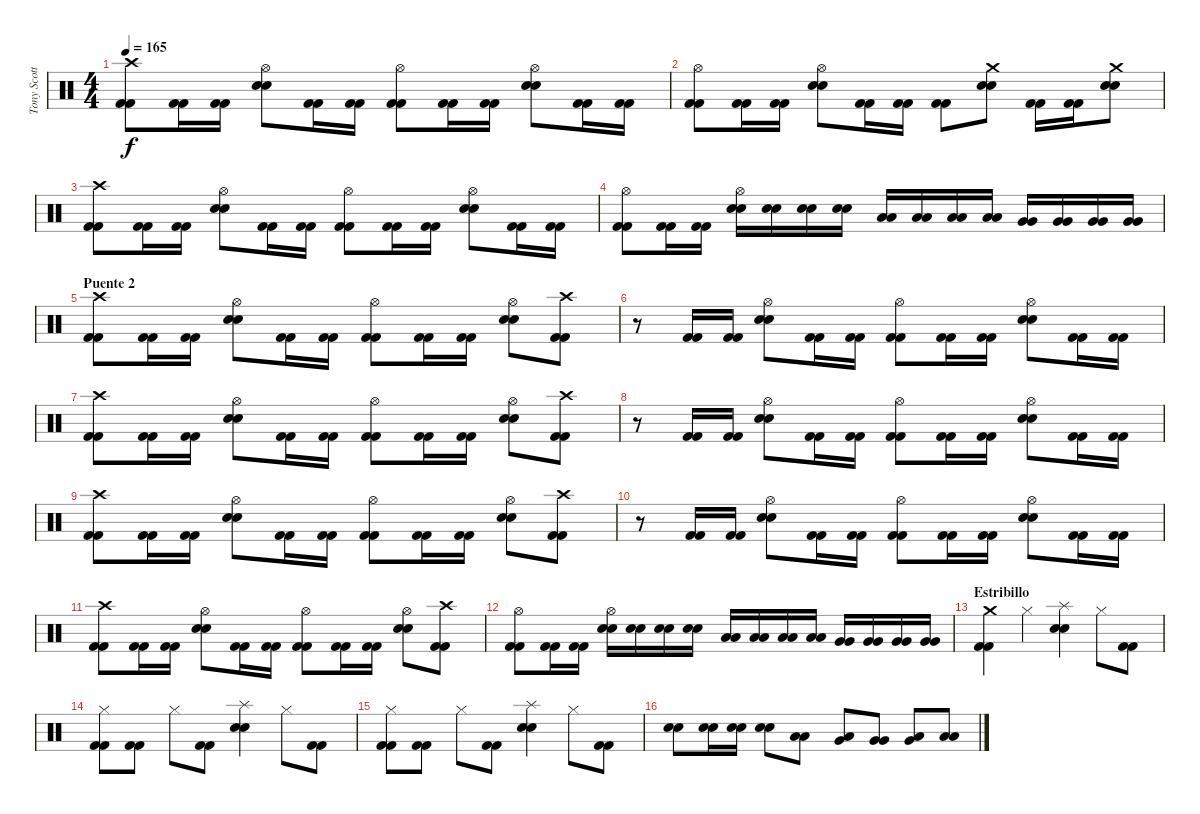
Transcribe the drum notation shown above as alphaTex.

\track ("Tony Scotto (bateria)" "Tony Scott") {instrument percussion}
\staff {score}
\articulation defaults
\ts (4 4)
\tempo 165
\clef neutral
\ks c
("Crash high (hit)" "Kick (hit) 2" "Kick (hit) 2").8{dy f} ("Kick (hit) 2" "Kick (hit) 2").16 ("Kick (hit) 2" "Kick (hit) 2").16 ("Hi-Hat (open)" "Snare (hit) 2" "Snare (hit) 2").8 ("Kick (hit) 2" "Kick (hit) 2").16 ("Kick (hit) 2" "Kick (hit) 2").16 ("Hi-Hat (open)" "Kick (hit) 2" "Kick (hit) 2").8 ("Kick (hit) 2" "Kick (hit) 2").16 ("Kick (hit) 2" "Kick (hit) 2").16 ("Hi-Hat (open)" "Snare (hit) 2" "Snare (hit) 2").8 ("Kick (hit) 2" "Kick (hit) 2").16 ("Kick (hit) 2" "Kick (hit) 2").16 |
("Hi-Hat (open)" "Kick (hit) 2" "Kick (hit) 2").8 ("Kick (hit) 2" "Kick (hit) 2").16 ("Kick (hit) 2" "Kick (hit) 2").16 ("Hi-Hat (open)" "Snare (hit) 2" "Snare (hit) 2").8 ("Kick (hit) 2" "Kick (hit) 2").16 ("Kick (hit) 2" "Kick (hit) 2").16 ("Kick (hit) 2" "Kick (hit) 2").8 ("Crash medium (hit)" "Snare (hit) 2" "Snare (hit) 2").8 ("Kick (hit) 2" "Kick (hit) 2").16 ("Kick (hit) 2" "Kick (hit) 2").16 ("Crash medium (hit)" "Snare (hit) 2" "Snare (hit) 2").8 |
("Crash high (hit)" "Kick (hit) 2" "Kick (hit) 2").8 ("Kick (hit) 2" "Kick (hit) 2").16 ("Kick (hit) 2" "Kick (hit) 2").16 ("Hi-Hat (open)" "Snare (hit) 2" "Snare (hit) 2").8 ("Kick (hit) 2" "Kick (hit) 2").16 ("Kick (hit) 2" "Kick (hit) 2").16 ("Hi-Hat (open)" "Kick (hit) 2" "Kick (hit) 2").8 ("Kick (hit) 2" "Kick (hit) 2").16 ("Kick (hit) 2" "Kick (hit) 2").16 ("Hi-Hat (open)" "Snare (hit) 2" "Snare (hit) 2").8 ("Kick (hit) 2" "Kick (hit) 2").16 ("Kick (hit) 2" "Kick (hit) 2").16 |
("Hi-Hat (open)" "Kick (hit) 2" "Kick (hit) 2").8 ("Kick (hit) 2" "Kick (hit) 2").16 ("Kick (hit) 2" "Kick (hit) 2").16 ("Hi-Hat (open)" "Snare (hit) 2" "Snare (hit) 2").16 ("Snare (hit) 2" "Snare (hit) 2").16 ("Snare (hit) 2" "Snare (hit) 2").16 ("Snare (hit) 2" "Snare (hit) 2").16 ("Low Tom (hit)" "Low Tom (hit)").16 ("Low Tom (hit)" "Low Tom (hit)").16 ("Low Tom (hit)" "Low Tom (hit)").16 ("Low Tom (hit)" "Low Tom (hit)").16 ("Very Low Tom (hit)" "Very Low Tom (hit)").16 ("Very Low Tom (hit)" "Very Low Tom (hit)").16 ("Very Low Tom (hit)" "Very Low Tom (hit)").16 ("Very Low Tom (hit)" "Very Low Tom (hit)").16 |
\section ("" "Puente 2")
("Crash high (hit)" "Kick (hit) 2" "Kick (hit) 2").8 ("Kick (hit) 2" "Kick (hit) 2").16 ("Kick (hit) 2" "Kick (hit) 2").16 ("Hi-Hat (open)" "Snare (hit) 2" "Snare (hit) 2").8 ("Kick (hit) 2" "Kick (hit) 2").16 ("Kick (hit) 2" "Kick (hit) 2").16 ("Hi-Hat (open)" "Kick (hit) 2" "Kick (hit) 2").8 ("Kick (hit) 2" "Kick (hit) 2").16 ("Kick (hit) 2" "Kick (hit) 2").16 ("Hi-Hat (open)" "Snare (hit) 2" "Snare (hit) 2").8 ("Crash high (hit)" "Kick (hit) 2" "Kick (hit) 2").8 |
r.8 ("Kick (hit) 2" "Kick (hit) 2").16 ("Kick (hit) 2" "Kick (hit) 2").16 ("Hi-Hat (open)" "Snare (hit) 2" "Snare (hit) 2").8 ("Kick (hit) 2" "Kick (hit) 2").16 ("Kick (hit) 2" "Kick (hit) 2").16 ("Hi-Hat (open)" "Kick (hit) 2" "Kick (hit) 2").8 ("Kick (hit) 2" "Kick (hit) 2").16 ("Kick (hit) 2" "Kick (hit) 2").16 ("Hi-Hat (open)" "Snare (hit) 2" "Snare (hit) 2").8 ("Kick (hit) 2" "Kick (hit) 2").16 ("Kick (hit) 2" "Kick (hit) 2").16 |
("Crash high (hit)" "Kick (hit) 2" "Kick (hit) 2").8 ("Kick (hit) 2" "Kick (hit) 2").16 ("Kick (hit) 2" "Kick (hit) 2").16 ("Hi-Hat (open)" "Snare (hit) 2" "Snare (hit) 2").8 ("Kick (hit) 2" "Kick (hit) 2").16 ("Kick (hit) 2" "Kick (hit) 2").16 ("Hi-Hat (open)" "Kick (hit) 2" "Kick (hit) 2").8 ("Kick (hit) 2" "Kick (hit) 2").16 ("Kick (hit) 2" "Kick (hit) 2").16 ("Hi-Hat (open)" "Snare (hit) 2" "Snare (hit) 2").8 ("Crash high (hit)" "Kick (hit) 2" "Kick (hit) 2").8 |
r.8 ("Kick (hit) 2" "Kick (hit) 2").16 ("Kick (hit) 2" "Kick (hit) 2").16 ("Hi-Hat (open)" "Snare (hit) 2" "Snare (hit) 2").8 ("Kick (hit) 2" "Kick (hit) 2").16 ("Kick (hit) 2" "Kick (hit) 2").16 ("Hi-Hat (open)" "Kick (hit) 2" "Kick (hit) 2").8 ("Kick (hit) 2" "Kick (hit) 2").16 ("Kick (hit) 2" "Kick (hit) 2").16 ("Hi-Hat (open)" "Snare (hit) 2" "Snare (hit) 2").8 ("Kick (hit) 2" "Kick (hit) 2").16 ("Kick (hit) 2" "Kick (hit) 2").16 |
("Crash high (hit)" "Kick (hit) 2" "Kick (hit) 2").8 ("Kick (hit) 2" "Kick (hit) 2").16 ("Kick (hit) 2" "Kick (hit) 2").16 ("Hi-Hat (open)" "Snare (hit) 2" "Snare (hit) 2").8 ("Kick (hit) 2" "Kick (hit) 2").16 ("Kick (hit) 2" "Kick (hit) 2").16 ("Hi-Hat (open)" "Kick (hit) 2" "Kick (hit) 2").8 ("Kick (hit) 2" "Kick (hit) 2").16 ("Kick (hit) 2" "Kick (hit) 2").16 ("Hi-Hat (open)" "Snare (hit) 2" "Snare (hit) 2").8 ("Crash high (hit)" "Kick (hit) 2" "Kick (hit) 2").8 |
r.8 ("Kick (hit) 2" "Kick (hit) 2").16 ("Kick (hit) 2" "Kick (hit) 2").16 ("Hi-Hat (open)" "Snare (hit) 2" "Snare (hit) 2").8 ("Kick (hit) 2" "Kick (hit) 2").16 ("Kick (hit) 2" "Kick (hit) 2").16 ("Hi-Hat (open)" "Kick (hit) 2" "Kick (hit) 2").8 ("Kick (hit) 2" "Kick (hit) 2").16 ("Kick (hit) 2" "Kick (hit) 2").16 ("Hi-Hat (open)" "Snare (hit) 2" "Snare (hit) 2").8 ("Kick (hit) 2" "Kick (hit) 2").16 ("Kick (hit) 2" "Kick (hit) 2").16 |
("Crash high (hit)" "Kick (hit) 2" "Kick (hit) 2").8 ("Kick (hit) 2" "Kick (hit) 2").16 ("Kick (hit) 2" "Kick (hit) 2").16 ("Hi-Hat (open)" "Snare (hit) 2" "Snare (hit) 2").8 ("Kick (hit) 2" "Kick (hit) 2").16 ("Kick (hit) 2" "Kick (hit) 2").16 ("Hi-Hat (open)" "Kick (hit) 2" "Kick (hit) 2").8 ("Kick (hit) 2" "Kick (hit) 2").16 ("Kick (hit) 2" "Kick (hit) 2").16 ("Hi-Hat (open)" "Snare (hit) 2" "Snare (hit) 2").8 ("Crash high (hit)" "Kick (hit) 2" "Kick (hit) 2").8 |
("Hi-Hat (open)" "Kick (hit) 2" "Kick (hit) 2").8 ("Kick (hit) 2" "Kick (hit) 2").16 ("Kick (hit) 2" "Kick (hit) 2").16 ("Hi-Hat (open)" "Snare (hit) 2" "Snare (hit) 2").16 ("Snare (hit) 2" "Snare (hit) 2").16 ("Snare (hit) 2" "Snare (hit) 2").16 ("Snare (hit) 2" "Snare (hit) 2").16 ("Low Tom (hit)" "Low Tom (hit)").16 ("Low Tom (hit)" "Low Tom (hit)").16 ("Low Tom (hit)" "Low Tom (hit)").16 ("Low Tom (hit)" "Low Tom (hit)").16 ("Very Low Tom (hit)" "Very Low Tom (hit)").16 ("Very Low Tom (hit)" "Very Low Tom (hit)").16 ("Very Low Tom (hit)" "Very Low Tom (hit)").16 ("Very Low Tom (hit)" "Very Low Tom (hit)").16 |
\section ("" "Estribillo")
("Crash medium (hit)" "Kick (hit) 2" "Kick (hit) 2").4 "Hi-Hat (closed)".4 ("Splash (hit)" "Snare (hit) 2" "Snare (hit) 2").4 "Hi-Hat (closed)".8 ("Kick (hit) 2" "Kick (hit) 2").8 |
("Hi-Hat (closed)" "Kick (hit) 2" "Kick (hit) 2").8 ("Kick (hit) 2" "Kick (hit) 2").8 "Hi-Hat (closed)".8 ("Kick (hit) 2" "Kick (hit) 2").8 ("Splash (hit)" "Snare (hit) 2" "Snare (hit) 2").4 "Hi-Hat (closed)".8 ("Kick (hit) 2" "Kick (hit) 2").8 |
("Hi-Hat (closed)" "Kick (hit) 2" "Kick (hit) 2").8 ("Kick (hit) 2" "Kick (hit) 2").8 "Hi-Hat (closed)".8 ("Kick (hit) 2" "Kick (hit) 2").8 ("Splash (hit)" "Snare (hit) 2" "Snare (hit) 2").4 "Hi-Hat (closed)".8 ("Kick (hit) 2" "Kick (hit) 2").8 |
("Snare (hit) 2" "Snare (hit) 2").8 ("Snare (hit) 2" "Snare (hit) 2").16 ("Snare (hit) 2" "Snare (hit) 2").16 ("Snare (hit) 2" "Snare (hit) 2").8 ("Low Tom (hit)" "Low Tom (hit)").8 ("Low Tom (hit)" "Very Low Tom (hit)").8 ("Very Low Tom (hit)" "Very Low Tom (hit)").8 ("Low Floor Tom (hit)" "Very Low Tom (hit)").8 ("Low Floor Tom (hit)" "Low Floor Tom (hit)").8
